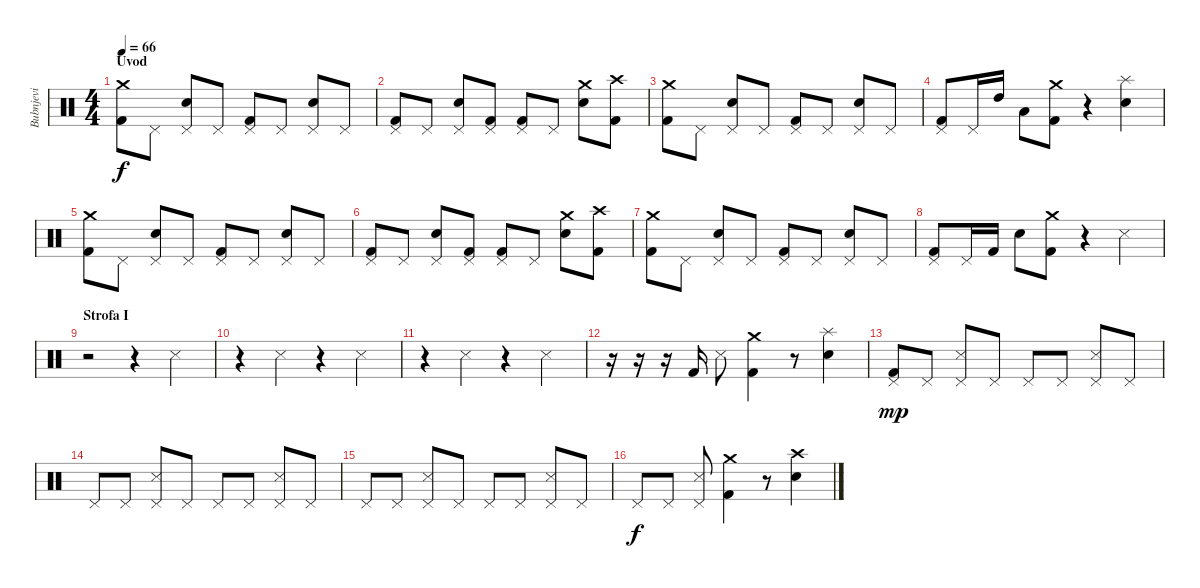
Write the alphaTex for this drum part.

\track ("Bubnjevi" "Bubnjevi") {instrument percussion}
\staff {score}
\articulation defaults
\ts (4 4)
\section ("" "Uvod")
\tempo 66
\clef neutral
\ks c
("Crash medium (hit)" "Kick (hit) 2").8{dy f} "Pedal Hi-Hat (hit)".8 ("Pedal Hi-Hat (hit)" "Electric Snare (hit)").8 "Pedal Hi-Hat (hit)".8 ("Pedal Hi-Hat (hit)" "Kick (hit) 2").8 "Pedal Hi-Hat (hit)".8 ("Pedal Hi-Hat (hit)" "Electric Snare (hit)").8 "Pedal Hi-Hat (hit)".8 |
("Pedal Hi-Hat (hit)" "Kick (hit) 2").8 "Pedal Hi-Hat (hit)".8 ("Pedal Hi-Hat (hit)" "Electric Snare (hit)").8 ("Pedal Hi-Hat (hit)" "Kick (hit) 2").8 ("Pedal Hi-Hat (hit)" "Kick (hit) 2").8 "Pedal Hi-Hat (hit)".8 ("Crash medium (hit)" "Electric Snare (hit)").8 ("Crash high (hit)" "Kick (hit) 2").8 |
("Crash medium (hit)" "Kick (hit) 2").8 "Pedal Hi-Hat (hit)".8 ("Pedal Hi-Hat (hit)" "Electric Snare (hit)").8 "Pedal Hi-Hat (hit)".8 ("Pedal Hi-Hat (hit)" "Kick (hit) 2").8 "Pedal Hi-Hat (hit)".8 ("Pedal Hi-Hat (hit)" "Electric Snare (hit)").8 "Pedal Hi-Hat (hit)".8 |
("Pedal Hi-Hat (hit)" "Kick (hit) 2").8 "Pedal Hi-Hat (hit)".16 "High Tom (hit)".16 "Low Tom (hit)".8 ("Crash medium (hit)" "Kick (hit) 2").8 r.4 ("Splash (hit)" "Electric Snare (hit)").4 |
("Crash medium (hit)" "Kick (hit) 2").8 "Pedal Hi-Hat (hit)".8 ("Pedal Hi-Hat (hit)" "Electric Snare (hit)").8 "Pedal Hi-Hat (hit)".8 ("Pedal Hi-Hat (hit)" "Kick (hit) 2").8 "Pedal Hi-Hat (hit)".8 ("Pedal Hi-Hat (hit)" "Electric Snare (hit)").8 "Pedal Hi-Hat (hit)".8 |
("Pedal Hi-Hat (hit)" "Kick (hit) 2").8 "Pedal Hi-Hat (hit)".8 ("Pedal Hi-Hat (hit)" "Electric Snare (hit)").8 ("Pedal Hi-Hat (hit)" "Kick (hit) 2").8 ("Pedal Hi-Hat (hit)" "Kick (hit) 2").8 "Pedal Hi-Hat (hit)".8 ("Crash medium (hit)" "Electric Snare (hit)").8 ("Crash high (hit)" "Kick (hit) 2").8 |
("Crash medium (hit)" "Kick (hit) 2").8 "Pedal Hi-Hat (hit)".8 ("Pedal Hi-Hat (hit)" "Electric Snare (hit)").8 "Pedal Hi-Hat (hit)".8 ("Pedal Hi-Hat (hit)" "Kick (hit) 2").8 "Pedal Hi-Hat (hit)".8 ("Pedal Hi-Hat (hit)" "Electric Snare (hit)").8 "Pedal Hi-Hat (hit)".8 |
("Pedal Hi-Hat (hit)" "Kick (hit) 2").8 "Pedal Hi-Hat (hit)".16 "Kick (hit) 2".16 "Electric Snare (hit)".8 ("Crash medium (hit)" "Kick (hit) 2").8 r.4 "Snare (side stick) 3".4 |
\section ("" "Strofa I")
r.2 r.4 "Snare (side stick) 3".4 |
r.4 "Snare (side stick) 3".4 r.4 "Snare (side stick) 3".4 |
r.4 "Snare (side stick) 3".4 r.4 "Snare (side stick) 3".4 |
r.16 r.16 r.16 "Kick (hit) 2".16 "Snare (side stick) 3".8 ("Crash medium (hit)" "Kick (hit) 2").4 r.8 ("Splash (hit)" "Electric Snare (hit)").4 |
("Pedal Hi-Hat (hit)" "Kick (hit) 2").8{dy mp} "Pedal Hi-Hat (hit)".8 ("Pedal Hi-Hat (hit)" "Snare (side stick) 3").8 "Pedal Hi-Hat (hit)".8 "Pedal Hi-Hat (hit)".8 "Pedal Hi-Hat (hit)".8 ("Pedal Hi-Hat (hit)" "Snare (side stick) 3").8 "Pedal Hi-Hat (hit)".8 |
"Pedal Hi-Hat (hit)".8 "Pedal Hi-Hat (hit)".8 ("Pedal Hi-Hat (hit)" "Snare (side stick) 3").8 "Pedal Hi-Hat (hit)".8 "Pedal Hi-Hat (hit)".8 "Pedal Hi-Hat (hit)".8 ("Pedal Hi-Hat (hit)" "Snare (side stick) 3").8 "Pedal Hi-Hat (hit)".8 |
"Pedal Hi-Hat (hit)".8 "Pedal Hi-Hat (hit)".8 ("Pedal Hi-Hat (hit)" "Snare (side stick) 3").8 "Pedal Hi-Hat (hit)".8 "Pedal Hi-Hat (hit)".8 "Pedal Hi-Hat (hit)".8 ("Pedal Hi-Hat (hit)" "Snare (side stick) 3").8 "Pedal Hi-Hat (hit)".8 |
"Pedal Hi-Hat (hit)".8{dy f} "Pedal Hi-Hat (hit)".8 ("Pedal Hi-Hat (hit)" "Snare (side stick) 3").8 ("Crash medium (hit)" "Kick (hit) 2").4 r.8 ("Crash high (hit)" "Electric Snare (hit)").4
